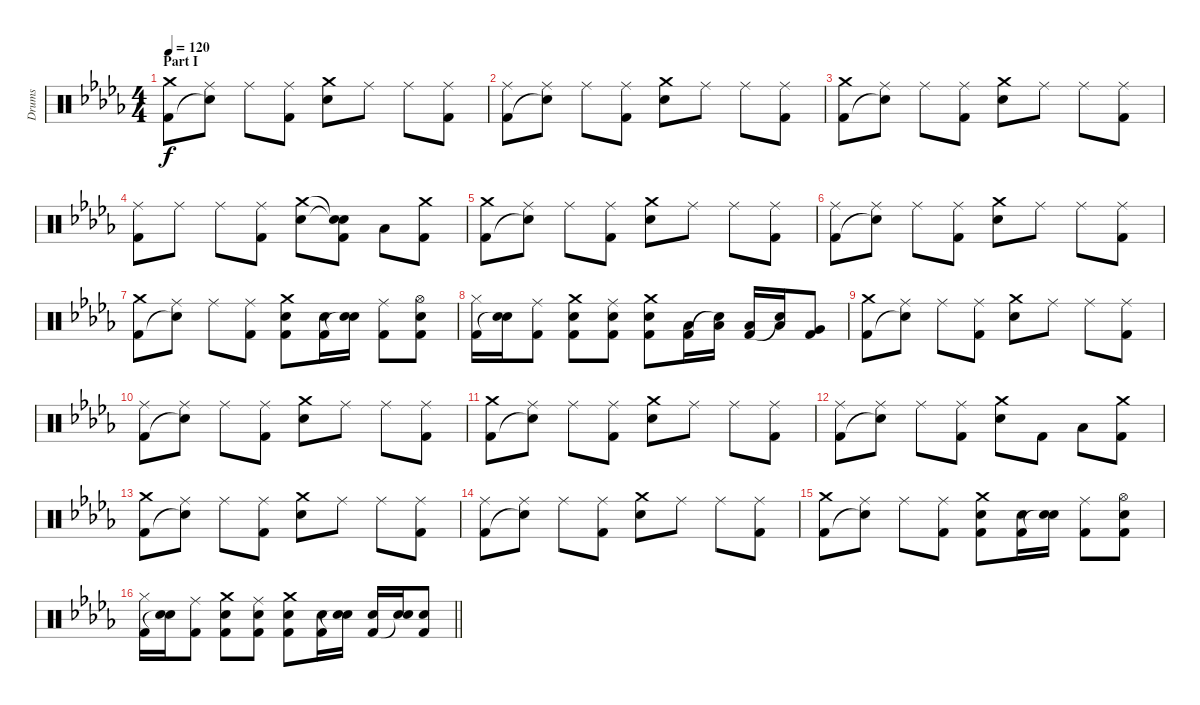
\track ("Drums" "Drums") {instrument percussion}
\staff {score}
\articulation defaults
\ts (4 4)
\section ("" "Part I")
\tempo 120
\clef neutral
\ks db
("Crash medium (hit)" "Kick (hit) 2").8{dy f} ("Ride (middle)" "Snare (hit)"{t}).8 "Ride (middle)".8 ("Ride (middle)" "Kick (hit) 2").8 ("Crash medium (hit)" "Electric Snare (hit)").8 "Ride (middle)".8 "Ride (middle)".8 ("Ride (middle)" "Kick (hit) 2").8 |
("Ride (middle)" "Kick (hit) 2").8 ("Ride (middle)" "Snare (hit)"{t}).8 "Ride (middle)".8 ("Ride (middle)" "Kick (hit) 2").8 ("Crash medium (hit)" "Electric Snare (hit)").8 "Ride (middle)".8 "Ride (middle)".8 ("Ride (middle)" "Kick (hit) 2").8 |
("Crash medium (hit)" "Kick (hit) 2").8 ("Ride (middle)" "Snare (hit)"{t}).8 "Ride (middle)".8 ("Ride (middle)" "Kick (hit) 2").8 ("Crash medium (hit)" "Electric Snare (hit)").8 "Ride (middle)".8 "Ride (middle)".8 ("Ride (middle)" "Kick (hit) 2").8 |
("Ride (middle)" "Kick (hit) 2").8 "Ride (middle)".8 "Ride (middle)".8 ("Ride (middle)" "Kick (hit) 2").8 ("Crash medium (hit)" "Electric Snare (hit)").8 ("Snare (hit)"{t} "Snare (hit)"{t} "Kick (hit) 2").8 "Low Tom (hit)".8 ("Crash medium (hit)" "Kick (hit) 2").8 |
("Crash medium (hit)" "Kick (hit) 2").8 ("Ride (middle)" "Snare (hit)"{t}).8 "Ride (middle)".8 ("Ride (middle)" "Kick (hit) 2").8 ("Crash medium (hit)" "Electric Snare (hit)").8 "Ride (middle)".8 "Ride (middle)".8 ("Ride (middle)" "Kick (hit) 2").8 |
("Ride (middle)" "Kick (hit) 2").8 ("Ride (middle)" "Snare (hit)"{t}).8 "Ride (middle)".8 ("Ride (middle)" "Kick (hit) 2").8 ("Crash medium (hit)" "Electric Snare (hit)").8 "Ride (middle)".8 "Ride (middle)".8 ("Ride (middle)" "Kick (hit) 2").8 |
("Crash medium (hit)" "Kick (hit) 2").8 ("Ride (middle)" "Snare (hit)"{t}).8 "Ride (middle)".8 ("Ride (middle)" "Kick (hit) 2").8 ("Crash medium (hit)" "Electric Snare (hit)" "Kick (hit) 2").8 ("Electric Snare (hit)" "Kick (hit) 2").16 ("Electric Snare (hit)" "Snare (hit)"{t}).16 ("Ride (middle)" "Kick (hit) 2").8 ("Hi-Hat (open)" "Electric Snare (hit)" "Kick (hit) 2").8 |
("Hi-Hat (closed)" "Kick (hit) 2").16 ("Electric Snare (hit)" "Snare (hit)"{t}).16 ("Ride (middle)" "Kick (hit) 2").8 ("Crash medium (hit)" "Electric Snare (hit)" "Kick (hit) 2").8 ("Ride (middle)" "Electric Snare (hit)" "Kick (hit) 2").8 ("Crash medium (hit)" "Electric Snare (hit)" "Kick (hit) 2").8 ("Low Tom (hit)" "Kick (hit) 2").16 ("Low Tom (hit)" "Snare (hit)"{t}).16 ("Low Tom (hit)" "Kick (hit) 2").16 ("Low Tom (hit)" "Snare (hit)"{t}).16 ("Very Low Tom (hit)" "Kick (hit) 2").8 |
("Crash medium (hit)" "Kick (hit) 2").8 ("Ride (middle)" "Snare (hit)"{t}).8 "Ride (middle)".8 ("Ride (middle)" "Kick (hit) 2").8 ("Crash medium (hit)" "Electric Snare (hit)").8 "Ride (middle)".8 "Ride (middle)".8 ("Ride (middle)" "Kick (hit) 2").8 |
("Ride (middle)" "Kick (hit) 2").8 ("Ride (middle)" "Snare (hit)"{t}).8 "Ride (middle)".8 ("Ride (middle)" "Kick (hit) 2").8 ("Crash medium (hit)" "Electric Snare (hit)").8 "Ride (middle)".8 "Ride (middle)".8 ("Ride (middle)" "Kick (hit) 2").8 |
("Crash medium (hit)" "Kick (hit) 2").8 ("Ride (middle)" "Snare (hit)"{t}).8 "Ride (middle)".8 ("Ride (middle)" "Kick (hit) 2").8 ("Crash medium (hit)" "Electric Snare (hit)").8 "Ride (middle)".8 "Ride (middle)".8 ("Ride (middle)" "Kick (hit) 2").8 |
("Ride (middle)" "Kick (hit) 2").8 ("Ride (middle)" "Snare (hit)"{t}).8 "Ride (middle)".8 ("Ride (middle)" "Kick (hit) 2").8 ("Crash medium (hit)" "Electric Snare (hit)").8 "Kick (hit) 2".8 "Low Tom (hit)".8 ("Crash medium (hit)" "Kick (hit) 2").8 |
("Crash medium (hit)" "Kick (hit) 2").8 ("Ride (middle)" "Snare (hit)"{t}).8 "Ride (middle)".8 ("Ride (middle)" "Kick (hit) 2").8 ("Crash medium (hit)" "Electric Snare (hit)").8 "Ride (middle)".8 "Ride (middle)".8 ("Ride (middle)" "Kick (hit) 2").8 |
("Ride (middle)" "Kick (hit) 2").8 ("Ride (middle)" "Snare (hit)"{t}).8 "Ride (middle)".8 ("Ride (middle)" "Kick (hit) 2").8 ("Crash medium (hit)" "Electric Snare (hit)").8 "Ride (middle)".8 "Ride (middle)".8 ("Ride (middle)" "Kick (hit) 2").8 |
("Crash medium (hit)" "Kick (hit) 2").8 ("Ride (middle)" "Snare (hit)"{t}).8 "Ride (middle)".8 ("Ride (middle)" "Kick (hit) 2").8 ("Crash medium (hit)" "Electric Snare (hit)" "Kick (hit) 2").8 ("Electric Snare (hit)" "Kick (hit) 2").16 ("Electric Snare (hit)" "Snare (hit)"{t}).16 ("Ride (middle)" "Kick (hit) 2").8 ("Hi-Hat (open)" "Electric Snare (hit)" "Kick (hit) 2").8 |
\barLineRight lightlight
("Hi-Hat (closed)" "Kick (hit) 2").16 ("Electric Snare (hit)" "Snare (hit)"{t}).16 ("Ride (middle)" "Kick (hit) 2").8 ("Crash medium (hit)" "Electric Snare (hit)" "Kick (hit) 2").8 ("Ride (middle)" "Electric Snare (hit)" "Kick (hit) 2").8 ("Crash medium (hit)" "Electric Snare (hit)" "Kick (hit) 2").8 ("Electric Snare (hit)" "Kick (hit) 2").16 ("Electric Snare (hit)" "Snare (hit)"{t}).16 ("Electric Snare (hit)" "Kick (hit) 2").16 ("Electric Snare (hit)" "Snare (hit)"{t}).16 ("Electric Snare (hit)" "Kick (hit) 2").8
